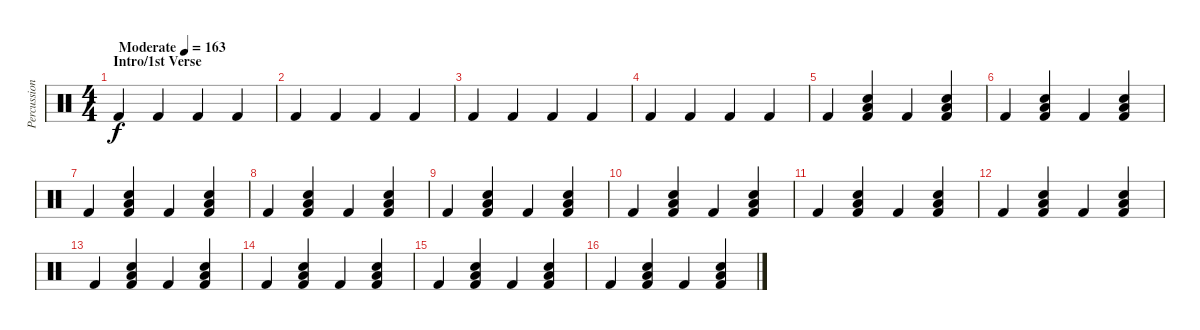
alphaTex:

\track ("Percussion" "Percussion") {instrument percussion}
\staff {score}
\articulation defaults
\ts (4 4)
\section ("" "Intro/1st Verse")
\tempo (163 "Moderate")
\clef neutral
\ks c "Kick (hit) 2".4{dy f} "Kick (hit) 2".4 "Kick (hit) 2".4 "Kick (hit) 2".4
|
"Kick (hit) 2".4 "Kick (hit) 2".4 "Kick (hit) 2".4 "Kick (hit) 2".4 |
"Kick (hit) 2".4 "Kick (hit) 2".4 "Kick (hit) 2".4 "Kick (hit) 2".4 |
"Kick (hit) 2".4 "Kick (hit) 2".4 "Kick (hit) 2".4 "Kick (hit) 2".4 |
"Kick (hit) 2".4 ("Low Tom (hit)" "Snare (hit) 2" "Kick (hit) 2").4 "Kick (hit) 2".4 ("Low Tom (hit)" "Snare (hit) 2" "Kick (hit) 2").4 |
"Kick (hit) 2".4 ("Low Tom (hit)" "Snare (hit) 2" "Kick (hit) 2").4 "Kick (hit) 2".4 ("Low Tom (hit)" "Snare (hit) 2" "Kick (hit) 2").4 |
"Kick (hit) 2".4 ("Low Tom (hit)" "Snare (hit) 2" "Kick (hit) 2").4 "Kick (hit) 2".4 ("Low Tom (hit)" "Snare (hit) 2" "Kick (hit) 2").4 |
"Kick (hit) 2".4 ("Low Tom (hit)" "Snare (hit) 2" "Kick (hit) 2").4 "Kick (hit) 2".4 ("Low Tom (hit)" "Snare (hit) 2" "Kick (hit) 2").4 |
"Kick (hit) 2".4 ("Low Tom (hit)" "Snare (hit) 2" "Kick (hit) 2").4 "Kick (hit) 2".4 ("Low Tom (hit)" "Snare (hit) 2" "Kick (hit) 2").4 |
"Kick (hit) 2".4 ("Low Tom (hit)" "Snare (hit) 2" "Kick (hit) 2").4 "Kick (hit) 2".4 ("Low Tom (hit)" "Snare (hit) 2" "Kick (hit) 2").4 |
"Kick (hit) 2".4 ("Low Tom (hit)" "Snare (hit) 2" "Kick (hit) 2").4 "Kick (hit) 2".4 ("Low Tom (hit)" "Snare (hit) 2" "Kick (hit) 2").4 |
"Kick (hit) 2".4 ("Low Tom (hit)" "Snare (hit) 2" "Kick (hit) 2").4 "Kick (hit) 2".4 ("Low Tom (hit)" "Snare (hit) 2" "Kick (hit) 2").4 |
"Kick (hit) 2".4 ("Low Tom (hit)" "Snare (hit) 2" "Kick (hit) 2").4 "Kick (hit) 2".4 ("Low Tom (hit)" "Snare (hit) 2" "Kick (hit) 2").4 |
"Kick (hit) 2".4 ("Low Tom (hit)" "Snare (hit) 2" "Kick (hit) 2").4 "Kick (hit) 2".4 ("Low Tom (hit)" "Snare (hit) 2" "Kick (hit) 2").4 |
"Kick (hit) 2".4 ("Low Tom (hit)" "Snare (hit) 2" "Kick (hit) 2").4 "Kick (hit) 2".4 ("Low Tom (hit)" "Snare (hit) 2" "Kick (hit) 2").4 |
"Kick (hit) 2".4 ("Low Tom (hit)" "Snare (hit) 2" "Kick (hit) 2").4 "Kick (hit) 2".4 ("Low Tom (hit)" "Snare (hit) 2" "Kick (hit) 2").4
